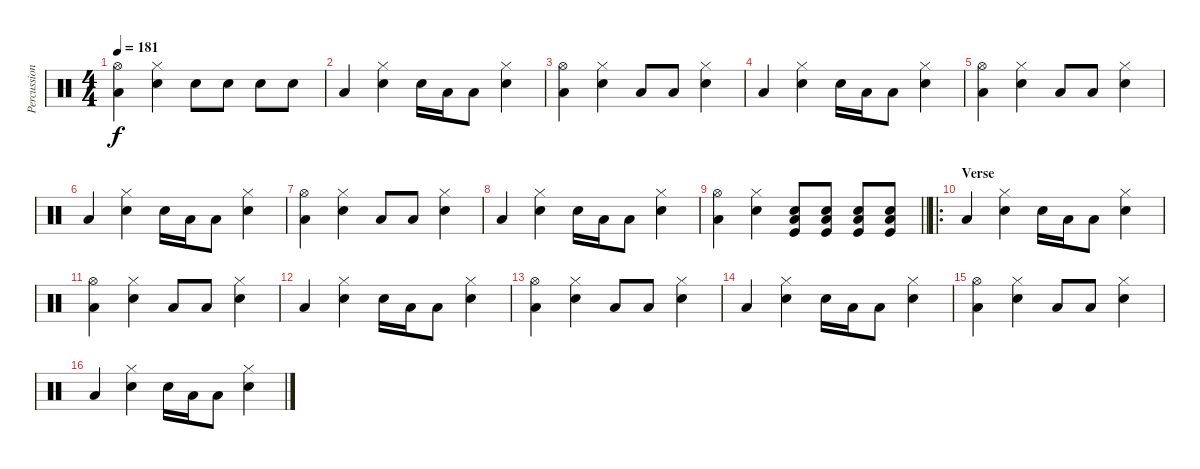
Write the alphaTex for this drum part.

\track ("Percussion" "Percussion") {instrument percussion}
\staff {score}
\articulation defaults
\ts (4 4)
\tempo 181
\clef neutral
\ks c
("Hi-Hat (open)" "Low Tom (hit)").4{dy f} ("Hi-Hat (closed)" "Snare (hit) 2").4 "Snare (hit) 2".8 "Snare (hit) 2".8 "Snare (hit) 2".8 "Snare (hit) 2".8 |
"Low Tom (hit)".4 ("Hi-Hat (closed)" "Snare (hit) 2").4 "Snare (hit) 2".16 "Low Tom (hit)".16 "Low Tom (hit)".8 ("Hi-Hat (closed)" "Snare (hit) 2").4 |
("Hi-Hat (open)" "Low Tom (hit)").4 ("Hi-Hat (closed)" "Snare (hit) 2").4 "Low Tom (hit)".8 "Low Tom (hit)".8 ("Hi-Hat (closed)" "Snare (hit) 2").4 |
"Low Tom (hit)".4 ("Hi-Hat (closed)" "Snare (hit) 2").4 "Snare (hit) 2".16 "Low Tom (hit)".16 "Low Tom (hit)".8 ("Hi-Hat (closed)" "Snare (hit) 2").4 |
("Hi-Hat (open)" "Low Tom (hit)").4 ("Hi-Hat (closed)" "Snare (hit) 2").4 "Low Tom (hit)".8 "Low Tom (hit)".8 ("Hi-Hat (closed)" "Snare (hit) 2").4 |
"Low Tom (hit)".4 ("Hi-Hat (closed)" "Snare (hit) 2").4 "Snare (hit) 2".16 "Low Tom (hit)".16 "Low Tom (hit)".8 ("Hi-Hat (closed)" "Snare (hit) 2").4 |
("Hi-Hat (open)" "Low Tom (hit)").4 ("Hi-Hat (closed)" "Snare (hit) 2").4 "Low Tom (hit)".8 "Low Tom (hit)".8 ("Hi-Hat (closed)" "Snare (hit) 2").4 |
"Low Tom (hit)".4 ("Hi-Hat (closed)" "Snare (hit) 2").4 "Snare (hit) 2".16 "Low Tom (hit)".16 "Low Tom (hit)".8 ("Hi-Hat (closed)" "Snare (hit) 2").4 |
\barLineRight lightlight
("Hi-Hat (open)" "Low Tom (hit)").4 ("Hi-Hat (closed)" "Snare (hit) 2").4 ("Low Floor Tom (hit)" "Snare (hit) 2" "Kick (hit)").8 ("Low Floor Tom (hit)" "Snare (hit) 2" "Kick (hit)").8 ("Low Floor Tom (hit)" "Snare (hit) 2" "Kick (hit)").8 ("Low Floor Tom (hit)" "Snare (hit) 2" "Kick (hit)").8 |
\ro
\section ("" "Verse")
"Low Tom (hit)".4 ("Hi-Hat (closed)" "Snare (hit) 2").4 "Snare (hit) 2".16 "Low Tom (hit)".16 "Low Tom (hit)".8 ("Hi-Hat (closed)" "Snare (hit) 2").4 |
("Hi-Hat (open)" "Low Tom (hit)").4 ("Hi-Hat (closed)" "Snare (hit) 2").4 "Low Tom (hit)".8 "Low Tom (hit)".8 ("Hi-Hat (closed)" "Snare (hit) 2").4 |
"Low Tom (hit)".4 ("Hi-Hat (closed)" "Snare (hit) 2").4 "Snare (hit) 2".16 "Low Tom (hit)".16 "Low Tom (hit)".8 ("Hi-Hat (closed)" "Snare (hit) 2").4 |
("Hi-Hat (open)" "Low Tom (hit)").4 ("Hi-Hat (closed)" "Snare (hit) 2").4 "Low Tom (hit)".8 "Low Tom (hit)".8 ("Hi-Hat (closed)" "Snare (hit) 2").4 |
"Low Tom (hit)".4 ("Hi-Hat (closed)" "Snare (hit) 2").4 "Snare (hit) 2".16 "Low Tom (hit)".16 "Low Tom (hit)".8 ("Hi-Hat (closed)" "Snare (hit) 2").4 |
("Hi-Hat (open)" "Low Tom (hit)").4 ("Hi-Hat (closed)" "Snare (hit) 2").4 "Low Tom (hit)".8 "Low Tom (hit)".8 ("Hi-Hat (closed)" "Snare (hit) 2").4 |
"Low Tom (hit)".4 ("Hi-Hat (closed)" "Snare (hit) 2").4 "Snare (hit) 2".16 "Low Tom (hit)".16 "Low Tom (hit)".8 ("Hi-Hat (closed)" "Snare (hit) 2").4
